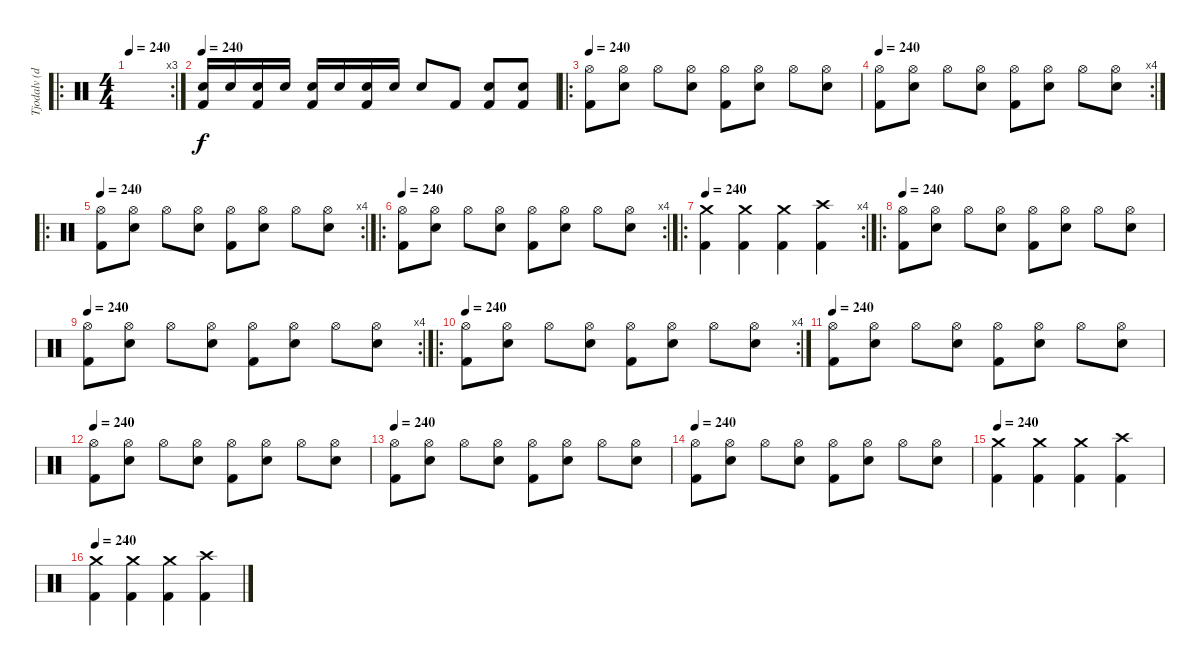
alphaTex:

\track ("Tjodalv (drums)" "Tjodalv (d") {instrument percussion}
\staff {score}
\articulation defaults
\ro
\rc 3
\ts (4 4)
\tempo 240
\clef neutral
\ks c
|
\tempo 240
("Snare (hit) 2" "Kick (hit) 2").16 "Snare (hit) 2".16 ("Snare (hit) 2" "Kick (hit) 2").16 "Snare (hit) 2".16 ("Snare (hit) 2" "Kick (hit) 2").16 "Snare (hit) 2".16 ("Snare (hit) 2" "Kick (hit) 2").16 "Snare (hit) 2".16 "Snare (hit) 2".8 "Kick (hit) 2".8 ("Snare (hit) 2" "Kick (hit) 2").8 ("Snare (hit) 2" "Kick (hit) 2").8 |
\ro
\tempo 240
("Hi-Hat (open)" "Kick (hit) 2").8 ("Hi-Hat (open)" "Snare (hit) 2").8 "Hi-Hat (open)".8 ("Hi-Hat (open)" "Snare (hit) 2").8 ("Hi-Hat (open)" "Kick (hit) 2").8 ("Hi-Hat (open)" "Snare (hit) 2").8 "Hi-Hat (open)".8 ("Hi-Hat (open)" "Snare (hit) 2").8 |
\rc 4
\tempo 240
("Hi-Hat (open)" "Kick (hit) 2").8 ("Hi-Hat (open)" "Snare (hit) 2").8 "Hi-Hat (open)".8 ("Hi-Hat (open)" "Snare (hit) 2").8 ("Hi-Hat (open)" "Kick (hit) 2").8 ("Hi-Hat (open)" "Snare (hit) 2").8 "Hi-Hat (open)".8 ("Hi-Hat (open)" "Snare (hit) 2").8 |
\ro
\rc 4
\tempo 240
("Hi-Hat (open)" "Kick (hit) 2").8 ("Hi-Hat (open)" "Snare (hit) 2").8 "Hi-Hat (open)".8 ("Hi-Hat (open)" "Snare (hit) 2").8 ("Hi-Hat (open)" "Kick (hit) 2").8 ("Hi-Hat (open)" "Snare (hit) 2").8 "Hi-Hat (open)".8 ("Hi-Hat (open)" "Snare (hit) 2").8 |
\ro
\rc 4
\tempo 240
("Hi-Hat (open)" "Kick (hit) 2").8 ("Hi-Hat (open)" "Snare (hit) 2").8 "Hi-Hat (open)".8 ("Hi-Hat (open)" "Snare (hit) 2").8 ("Hi-Hat (open)" "Kick (hit) 2").8 ("Hi-Hat (open)" "Snare (hit) 2").8 "Hi-Hat (open)".8 ("Hi-Hat (open)" "Snare (hit) 2").8 |
\ro
\rc 4
\tempo 240
("Crash medium (hit)" "Kick (hit) 2").4 ("Crash medium (hit)" "Kick (hit) 2").4 ("Crash medium (hit)" "Kick (hit) 2").4 ("Crash high (hit)" "Kick (hit) 2").4 |
\ro
\tempo 240
("Hi-Hat (open)" "Kick (hit) 2").8 ("Hi-Hat (open)" "Snare (hit) 2").8 "Hi-Hat (open)".8 ("Hi-Hat (open)" "Snare (hit) 2").8 ("Hi-Hat (open)" "Kick (hit) 2").8 ("Hi-Hat (open)" "Snare (hit) 2").8 "Hi-Hat (open)".8 ("Hi-Hat (open)" "Snare (hit) 2").8 |
\rc 4
\tempo 240
("Hi-Hat (open)" "Kick (hit) 2").8 ("Hi-Hat (open)" "Snare (hit) 2").8 "Hi-Hat (open)".8 ("Hi-Hat (open)" "Snare (hit) 2").8 ("Hi-Hat (open)" "Kick (hit) 2").8 ("Hi-Hat (open)" "Snare (hit) 2").8 "Hi-Hat (open)".8 ("Hi-Hat (open)" "Snare (hit) 2").8 |
\ro
\rc 4
\tempo 240
("Hi-Hat (open)" "Kick (hit) 2").8 ("Hi-Hat (open)" "Snare (hit) 2").8 "Hi-Hat (open)".8 ("Hi-Hat (open)" "Snare (hit) 2").8 ("Hi-Hat (open)" "Kick (hit) 2").8 ("Hi-Hat (open)" "Snare (hit) 2").8 "Hi-Hat (open)".8 ("Hi-Hat (open)" "Snare (hit) 2").8 |
\tempo 240
("Hi-Hat (open)" "Kick (hit) 2").8 ("Hi-Hat (open)" "Snare (hit) 2").8 "Hi-Hat (open)".8 ("Hi-Hat (open)" "Snare (hit) 2").8 ("Hi-Hat (open)" "Kick (hit) 2").8 ("Hi-Hat (open)" "Snare (hit) 2").8 "Hi-Hat (open)".8 ("Hi-Hat (open)" "Snare (hit) 2").8 |
\tempo 240
("Hi-Hat (open)" "Kick (hit) 2").8 ("Hi-Hat (open)" "Snare (hit) 2").8 "Hi-Hat (open)".8 ("Hi-Hat (open)" "Snare (hit) 2").8 ("Hi-Hat (open)" "Kick (hit) 2").8 ("Hi-Hat (open)" "Snare (hit) 2").8 "Hi-Hat (open)".8 ("Hi-Hat (open)" "Snare (hit) 2").8 |
\tempo 240
("Hi-Hat (open)" "Kick (hit) 2").8 ("Hi-Hat (open)" "Snare (hit) 2").8 "Hi-Hat (open)".8 ("Hi-Hat (open)" "Snare (hit) 2").8 ("Hi-Hat (open)" "Kick (hit) 2").8 ("Hi-Hat (open)" "Snare (hit) 2").8 "Hi-Hat (open)".8 ("Hi-Hat (open)" "Snare (hit) 2").8 |
\tempo 240
("Hi-Hat (open)" "Kick (hit) 2").8 ("Hi-Hat (open)" "Snare (hit) 2").8 "Hi-Hat (open)".8 ("Hi-Hat (open)" "Snare (hit) 2").8 ("Hi-Hat (open)" "Kick (hit) 2").8 ("Hi-Hat (open)" "Snare (hit) 2").8 "Hi-Hat (open)".8 ("Hi-Hat (open)" "Snare (hit) 2").8 |
\tempo 240
("Crash medium (hit)" "Kick (hit) 2").4 ("Crash medium (hit)" "Kick (hit) 2").4 ("Crash medium (hit)" "Kick (hit) 2").4 ("Crash high (hit)" "Kick (hit) 2").4 |
\tempo 240
("Crash medium (hit)" "Kick (hit) 2").4 ("Crash medium (hit)" "Kick (hit) 2").4 ("Crash medium (hit)" "Kick (hit) 2").4 ("Crash high (hit)" "Kick (hit) 2").4
